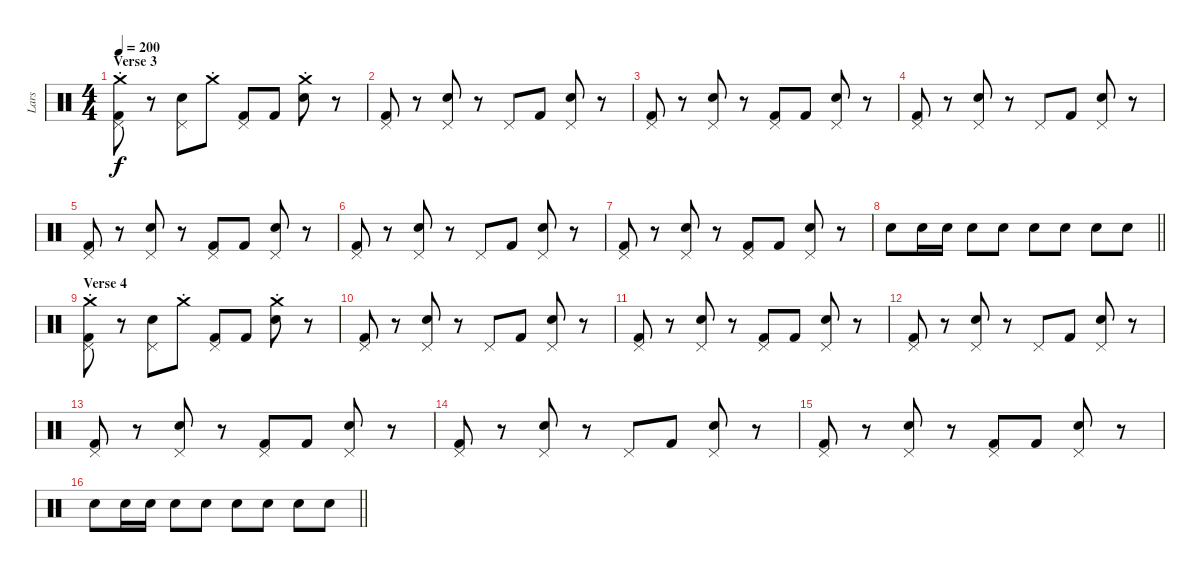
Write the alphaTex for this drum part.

\track ("Lars" "Lars") {instrument percussion}
\staff {score}
\articulation defaults
\ts (4 4)
\section ("" "Verse 3")
\tempo 200
\clef neutral
\ks c
("Crash medium (hit)"{st} "Pedal Hi-Hat (hit)" "Kick (hit) 2").8{dy f} r.8 ("Pedal Hi-Hat (hit)" "Snare (hit) 2").8 "Crash medium (hit)"{st}.8 ("Pedal Hi-Hat (hit)" "Kick (hit) 2").8 "Kick (hit) 2".8 ("Crash medium (hit)"{st} "Snare (hit) 2").8 r.8 |
("Pedal Hi-Hat (hit)" "Kick (hit) 2").8 r.8 ("Pedal Hi-Hat (hit)" "Snare (hit) 2").8 r.8 "Pedal Hi-Hat (hit)".8 "Kick (hit) 2".8 ("Pedal Hi-Hat (hit)" "Snare (hit) 2").8 r.8 |
("Pedal Hi-Hat (hit)" "Kick (hit) 2").8 r.8 ("Pedal Hi-Hat (hit)" "Snare (hit) 2").8 r.8 ("Pedal Hi-Hat (hit)" "Kick (hit) 2").8 "Kick (hit) 2".8 ("Pedal Hi-Hat (hit)" "Snare (hit) 2").8 r.8 |
("Pedal Hi-Hat (hit)" "Kick (hit) 2").8 r.8 ("Pedal Hi-Hat (hit)" "Snare (hit) 2").8 r.8 "Pedal Hi-Hat (hit)".8 "Kick (hit) 2".8 ("Pedal Hi-Hat (hit)" "Snare (hit) 2").8 r.8 |
("Pedal Hi-Hat (hit)" "Kick (hit) 2").8 r.8 ("Pedal Hi-Hat (hit)" "Snare (hit) 2").8 r.8 ("Pedal Hi-Hat (hit)" "Kick (hit) 2").8 "Kick (hit) 2".8 ("Pedal Hi-Hat (hit)" "Snare (hit) 2").8 r.8 |
("Pedal Hi-Hat (hit)" "Kick (hit) 2").8 r.8 ("Pedal Hi-Hat (hit)" "Snare (hit) 2").8 r.8 "Pedal Hi-Hat (hit)".8 "Kick (hit) 2".8 ("Pedal Hi-Hat (hit)" "Snare (hit) 2").8 r.8 |
("Pedal Hi-Hat (hit)" "Kick (hit) 2").8 r.8 ("Pedal Hi-Hat (hit)" "Snare (hit) 2").8 r.8 ("Pedal Hi-Hat (hit)" "Kick (hit) 2").8 "Kick (hit) 2".8 ("Pedal Hi-Hat (hit)" "Snare (hit) 2").8 r.8 |
\barLineRight lightlight "Snare (hit) 2".8 "Snare (hit) 2".16 "Snare (hit) 2".16 "Snare (hit) 2".8 "Snare (hit) 2".8 "Snare (hit) 2".8 "Snare (hit) 2".8 "Snare (hit) 2".8 "Snare (hit) 2".8
|
\section ("" "Verse 4")
("Crash medium (hit)"{st} "Pedal Hi-Hat (hit)" "Kick (hit) 2").8 r.8 ("Pedal Hi-Hat (hit)" "Snare (hit) 2").8 "Crash medium (hit)"{st}.8 ("Pedal Hi-Hat (hit)" "Kick (hit) 2").8 "Kick (hit) 2".8 ("Crash medium (hit)"{st} "Snare (hit) 2").8 r.8 |
("Pedal Hi-Hat (hit)" "Kick (hit) 2").8 r.8 ("Pedal Hi-Hat (hit)" "Snare (hit) 2").8 r.8 "Pedal Hi-Hat (hit)".8 "Kick (hit) 2".8 ("Pedal Hi-Hat (hit)" "Snare (hit) 2").8 r.8 |
("Pedal Hi-Hat (hit)" "Kick (hit) 2").8 r.8 ("Pedal Hi-Hat (hit)" "Snare (hit) 2").8 r.8 ("Pedal Hi-Hat (hit)" "Kick (hit) 2").8 "Kick (hit) 2".8 ("Pedal Hi-Hat (hit)" "Snare (hit) 2").8 r.8 |
("Pedal Hi-Hat (hit)" "Kick (hit) 2").8 r.8 ("Pedal Hi-Hat (hit)" "Snare (hit) 2").8 r.8 "Pedal Hi-Hat (hit)".8 "Kick (hit) 2".8 ("Pedal Hi-Hat (hit)" "Snare (hit) 2").8 r.8 |
("Pedal Hi-Hat (hit)" "Kick (hit) 2").8 r.8 ("Pedal Hi-Hat (hit)" "Snare (hit) 2").8 r.8 ("Pedal Hi-Hat (hit)" "Kick (hit) 2").8 "Kick (hit) 2".8 ("Pedal Hi-Hat (hit)" "Snare (hit) 2").8 r.8 |
("Pedal Hi-Hat (hit)" "Kick (hit) 2").8 r.8 ("Pedal Hi-Hat (hit)" "Snare (hit) 2").8 r.8 "Pedal Hi-Hat (hit)".8 "Kick (hit) 2".8 ("Pedal Hi-Hat (hit)" "Snare (hit) 2").8 r.8 |
("Pedal Hi-Hat (hit)" "Kick (hit) 2").8 r.8 ("Pedal Hi-Hat (hit)" "Snare (hit) 2").8 r.8 ("Pedal Hi-Hat (hit)" "Kick (hit) 2").8 "Kick (hit) 2".8 ("Pedal Hi-Hat (hit)" "Snare (hit) 2").8 r.8 |
\barLineRight lightlight "Snare (hit) 2".8 "Snare (hit) 2".16 "Snare (hit) 2".16 "Snare (hit) 2".8 "Snare (hit) 2".8 "Snare (hit) 2".8 "Snare (hit) 2".8 "Snare (hit) 2".8 "Snare (hit) 2".8
